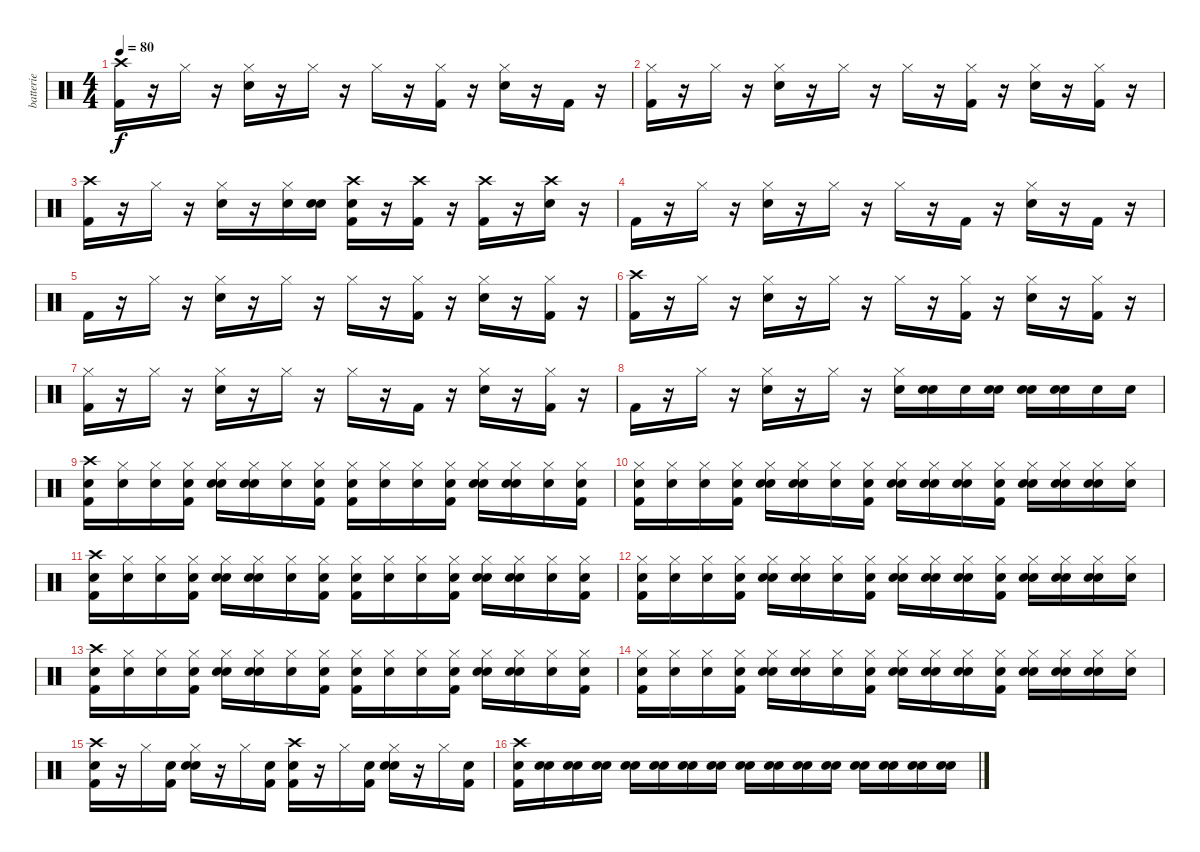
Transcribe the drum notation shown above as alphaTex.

\track ("batterie" "batterie") {instrument percussion}
\staff {score}
\articulation defaults
\ts (4 4)
\tempo 80
\clef neutral
\ks c
("Crash high (hit)" "Kick (hit) 2").16{dy f} r.16 "Hi-Hat (closed)".16 r.16 ("Hi-Hat (closed)" "Snare (hit) 2").16 r.16 "Hi-Hat (closed)".16 r.16 "Hi-Hat (closed)".16 r.16 ("Hi-Hat (closed)" "Kick (hit) 2").16 r.16 ("Hi-Hat (closed)" "Snare (hit) 2").16 r.16 "Kick (hit) 2".16 r.16 |
("Hi-Hat (closed)" "Kick (hit) 2").16 r.16 "Hi-Hat (closed)".16 r.16 ("Hi-Hat (closed)" "Snare (hit) 2").16 r.16 "Hi-Hat (closed)".16 r.16 "Hi-Hat (closed)".16 r.16 ("Hi-Hat (closed)" "Kick (hit) 2").16 r.16 ("Hi-Hat (closed)" "Snare (hit) 2").16 r.16 ("Hi-Hat (closed)" "Kick (hit) 2").16 r.16 |
("Crash high (hit)" "Kick (hit) 2").16 r.16 "Hi-Hat (closed)".16 r.16 ("Hi-Hat (closed)" "Snare (hit) 2").16 r.16 ("Hi-Hat (closed)" "Snare (hit) 2").16 ("Snare (hit)" "Snare (hit) 2").16 ("Snare (hit)" "Crash high (hit)" "Kick (hit) 2").16 r.16 ("Crash high (hit)" "Kick (hit) 2").16 r.16 ("Crash high (hit)" "Kick (hit) 2").16 r.16 ("Crash high (hit)" "Snare (hit) 2").16 r.16 |
"Kick (hit) 2".16 r.16 "Hi-Hat (closed)".16 r.16 ("Hi-Hat (closed)" "Snare (hit) 2").16 r.16 "Hi-Hat (closed)".16 r.16 "Hi-Hat (closed)".16 r.16 "Kick (hit) 2".16 r.16 ("Hi-Hat (closed)" "Snare (hit) 2").16 r.16 "Kick (hit) 2".16 r.16 |
"Kick (hit) 2".16 r.16 "Hi-Hat (closed)".16 r.16 ("Hi-Hat (closed)" "Snare (hit) 2").16 r.16 "Hi-Hat (closed)".16 r.16 "Hi-Hat (closed)".16 r.16 ("Hi-Hat (closed)" "Kick (hit) 2").16 r.16 ("Hi-Hat (closed)" "Snare (hit) 2").16 r.16 ("Hi-Hat (closed)" "Kick (hit) 2").16 r.16 |
("Crash high (hit)" "Kick (hit) 2").16 r.16 "Hi-Hat (closed)".16 r.16 ("Hi-Hat (closed)" "Snare (hit) 2").16 r.16 "Hi-Hat (closed)".16 r.16 "Hi-Hat (closed)".16 r.16 ("Hi-Hat (closed)" "Kick (hit) 2").16 r.16 ("Hi-Hat (closed)" "Snare (hit) 2").16 r.16 ("Hi-Hat (closed)" "Kick (hit) 2").16 r.16 |
("Hi-Hat (closed)" "Kick (hit) 2").16 r.16 "Hi-Hat (closed)".16 r.16 ("Hi-Hat (closed)" "Snare (hit) 2").16 r.16 "Hi-Hat (closed)".16 r.16 "Hi-Hat (closed)".16 r.16 "Kick (hit) 2".16 r.16 ("Hi-Hat (closed)" "Snare (hit) 2").16 r.16 ("Hi-Hat (closed)" "Kick (hit) 2").16 r.16 |
"Kick (hit) 2".16 r.16 "Hi-Hat (closed)".16 r.16 ("Hi-Hat (closed)" "Snare (hit) 2").16 r.16 "Hi-Hat (closed)".16 r.16 ("Snare (hit) 2" "Hi-Hat (closed)").16 ("Snare (hit)" "Snare (hit) 2").16 "Snare (hit) 2".16 ("Snare (hit)" "Snare (hit) 2").16 ("Snare (hit)" "Snare (hit) 2").16 ("Snare (hit)" "Snare (hit) 2").16 "Snare (hit) 2".16 "Snare (hit) 2".16 |
("Snare (hit)" "Crash high (hit)" "Kick (hit) 2").16 ("Snare (hit)" "Hi-Hat (closed)").16 ("Snare (hit)" "Hi-Hat (closed)").16 ("Snare (hit)" "Hi-Hat (closed)" "Kick (hit) 2").16 ("Snare (hit)" "Hi-Hat (closed)" "Snare (hit) 2").16 ("Snare (hit)" "Hi-Hat (closed)" "Snare (hit) 2").16 ("Snare (hit)" "Hi-Hat (closed)").16 ("Snare (hit)" "Hi-Hat (closed)" "Kick (hit) 2").16 ("Snare (hit)" "Hi-Hat (closed)" "Kick (hit) 2").16 ("Snare (hit)" "Hi-Hat (closed)").16 ("Snare (hit)" "Hi-Hat (closed)").16 ("Snare (hit)" "Hi-Hat (closed)" "Kick (hit) 2").16 ("Snare (hit)" "Hi-Hat (closed)" "Snare (hit) 2").16 ("Snare (hit)" "Hi-Hat (closed)" "Snare (hit) 2").16 ("Snare (hit)" "Hi-Hat (closed)").16 ("Snare (hit)" "Hi-Hat (closed)" "Kick (hit) 2").16 |
("Snare (hit)" "Kick (hit) 2" "Hi-Hat (closed)").16 ("Snare (hit)" "Hi-Hat (closed)").16 ("Snare (hit)" "Hi-Hat (closed)").16 ("Snare (hit)" "Kick (hit) 2" "Hi-Hat (closed)").16 ("Snare (hit)" "Snare (hit) 2" "Hi-Hat (closed)").16 ("Snare (hit)" "Snare (hit) 2" "Hi-Hat (closed)").16 ("Snare (hit)" "Hi-Hat (closed)").16 ("Snare (hit)" "Kick (hit) 2" "Hi-Hat (closed)").16 ("Snare (hit)" "Snare (hit) 2" "Hi-Hat (closed)").16 ("Snare (hit)" "Snare (hit) 2" "Hi-Hat (closed)").16 ("Snare (hit)" "Snare (hit) 2" "Hi-Hat (closed)").16 ("Snare (hit)" "Kick (hit) 2" "Hi-Hat (closed)").16 ("Snare (hit)" "Snare (hit) 2" "Hi-Hat (closed)").16 ("Snare (hit)" "Snare (hit) 2" "Hi-Hat (closed)").16 ("Snare (hit)" "Snare (hit) 2" "Hi-Hat (closed)").16 ("Snare (hit) 2" "Hi-Hat (closed)").16 |
("Snare (hit)" "Crash high (hit)" "Kick (hit) 2").16 ("Snare (hit)" "Hi-Hat (closed)").16 ("Snare (hit)" "Hi-Hat (closed)").16 ("Snare (hit)" "Hi-Hat (closed)" "Kick (hit) 2").16 ("Snare (hit)" "Hi-Hat (closed)" "Snare (hit) 2").16 ("Snare (hit)" "Hi-Hat (closed)" "Snare (hit) 2").16 ("Snare (hit)" "Hi-Hat (closed)").16 ("Snare (hit)" "Hi-Hat (closed)" "Kick (hit) 2").16 ("Snare (hit)" "Hi-Hat (closed)" "Kick (hit) 2").16 ("Snare (hit)" "Hi-Hat (closed)").16 ("Snare (hit)" "Hi-Hat (closed)").16 ("Snare (hit)" "Hi-Hat (closed)" "Kick (hit) 2").16 ("Snare (hit)" "Hi-Hat (closed)" "Snare (hit) 2").16 ("Snare (hit)" "Hi-Hat (closed)" "Snare (hit) 2").16 ("Snare (hit)" "Hi-Hat (closed)").16 ("Snare (hit)" "Hi-Hat (closed)" "Kick (hit) 2").16 |
("Snare (hit)" "Kick (hit) 2" "Hi-Hat (closed)").16 ("Snare (hit)" "Hi-Hat (closed)").16 ("Snare (hit)" "Hi-Hat (closed)").16 ("Snare (hit)" "Kick (hit) 2" "Hi-Hat (closed)").16 ("Snare (hit)" "Snare (hit) 2" "Hi-Hat (closed)").16 ("Snare (hit)" "Snare (hit) 2" "Hi-Hat (closed)").16 ("Snare (hit)" "Hi-Hat (closed)").16 ("Snare (hit)" "Kick (hit) 2" "Hi-Hat (closed)").16 ("Snare (hit)" "Snare (hit) 2" "Hi-Hat (closed)").16 ("Snare (hit)" "Snare (hit) 2" "Hi-Hat (closed)").16 ("Snare (hit)" "Snare (hit) 2" "Hi-Hat (closed)").16 ("Snare (hit)" "Kick (hit) 2" "Hi-Hat (closed)").16 ("Snare (hit)" "Snare (hit) 2" "Hi-Hat (closed)").16 ("Snare (hit)" "Snare (hit) 2" "Hi-Hat (closed)").16 ("Snare (hit)" "Snare (hit) 2" "Hi-Hat (closed)").16 ("Snare (hit) 2" "Hi-Hat (closed)").16 |
("Snare (hit)" "Crash high (hit)" "Kick (hit) 2").16 ("Snare (hit)" "Hi-Hat (closed)").16 ("Snare (hit)" "Hi-Hat (closed)").16 ("Snare (hit)" "Hi-Hat (closed)" "Kick (hit) 2").16 ("Snare (hit)" "Hi-Hat (closed)" "Snare (hit) 2").16 ("Snare (hit)" "Hi-Hat (closed)" "Snare (hit) 2").16 ("Snare (hit)" "Hi-Hat (closed)").16 ("Snare (hit)" "Hi-Hat (closed)" "Kick (hit) 2").16 ("Snare (hit)" "Hi-Hat (closed)" "Kick (hit) 2").16 ("Snare (hit)" "Hi-Hat (closed)").16 ("Snare (hit)" "Hi-Hat (closed)").16 ("Snare (hit)" "Hi-Hat (closed)" "Kick (hit) 2").16 ("Snare (hit)" "Hi-Hat (closed)" "Snare (hit) 2").16 ("Snare (hit)" "Hi-Hat (closed)" "Snare (hit) 2").16 ("Snare (hit)" "Hi-Hat (closed)").16 ("Snare (hit)" "Hi-Hat (closed)" "Kick (hit) 2").16 |
("Snare (hit)" "Kick (hit) 2" "Hi-Hat (closed)").16 ("Snare (hit)" "Hi-Hat (closed)").16 ("Snare (hit)" "Hi-Hat (closed)").16 ("Snare (hit)" "Kick (hit) 2" "Hi-Hat (closed)").16 ("Snare (hit)" "Snare (hit) 2" "Hi-Hat (closed)").16 ("Snare (hit)" "Snare (hit) 2" "Hi-Hat (closed)").16 ("Snare (hit)" "Hi-Hat (closed)").16 ("Snare (hit)" "Kick (hit) 2" "Hi-Hat (closed)").16 ("Snare (hit)" "Snare (hit) 2" "Hi-Hat (closed)").16 ("Snare (hit)" "Snare (hit) 2" "Hi-Hat (closed)").16 ("Snare (hit)" "Snare (hit) 2" "Hi-Hat (closed)").16 ("Snare (hit)" "Kick (hit) 2" "Hi-Hat (closed)").16 ("Snare (hit)" "Snare (hit) 2" "Hi-Hat (closed)").16 ("Snare (hit)" "Snare (hit) 2" "Hi-Hat (closed)").16 ("Snare (hit)" "Snare (hit) 2" "Hi-Hat (closed)").16 ("Snare (hit) 2" "Hi-Hat (closed)").16 |
("Snare (hit)" "Crash high (hit)" "Kick (hit) 2").16 r.16 "Hi-Hat (closed)".16 ("Snare (hit)" "Kick (hit) 2").16 ("Snare (hit)" "Hi-Hat (closed)" "Snare (hit) 2").16 r.16 "Hi-Hat (closed)".16 ("Snare (hit)" "Kick (hit) 2").16 ("Snare (hit)" "Crash high (hit)" "Kick (hit) 2").16 r.16 "Hi-Hat (closed)".16 ("Snare (hit)" "Kick (hit) 2").16 ("Snare (hit)" "Hi-Hat (closed)" "Snare (hit) 2").16 r.16 "Hi-Hat (closed)".16 ("Snare (hit)" "Kick (hit) 2").16 |
("Snare (hit)" "Crash high (hit)" "Kick (hit) 2").16 ("Snare (hit)" "Snare (hit) 2").16 ("Snare (hit)" "Snare (hit) 2").16 ("Snare (hit)" "Snare (hit) 2").16 ("Snare (hit)" "Snare (hit) 2").16 ("Snare (hit)" "Snare (hit) 2").16 ("Snare (hit)" "Snare (hit) 2").16 ("Snare (hit)" "Snare (hit) 2").16 ("Snare (hit)" "Snare (hit) 2").16 ("Snare (hit)" "Snare (hit) 2").16 ("Snare (hit)" "Snare (hit) 2").16 ("Snare (hit)" "Snare (hit) 2").16 ("Snare (hit)" "Snare (hit) 2").16 ("Snare (hit)" "Snare (hit) 2").16 ("Snare (hit)" "Snare (hit) 2").16 ("Snare (hit)" "Snare (hit) 2").16
